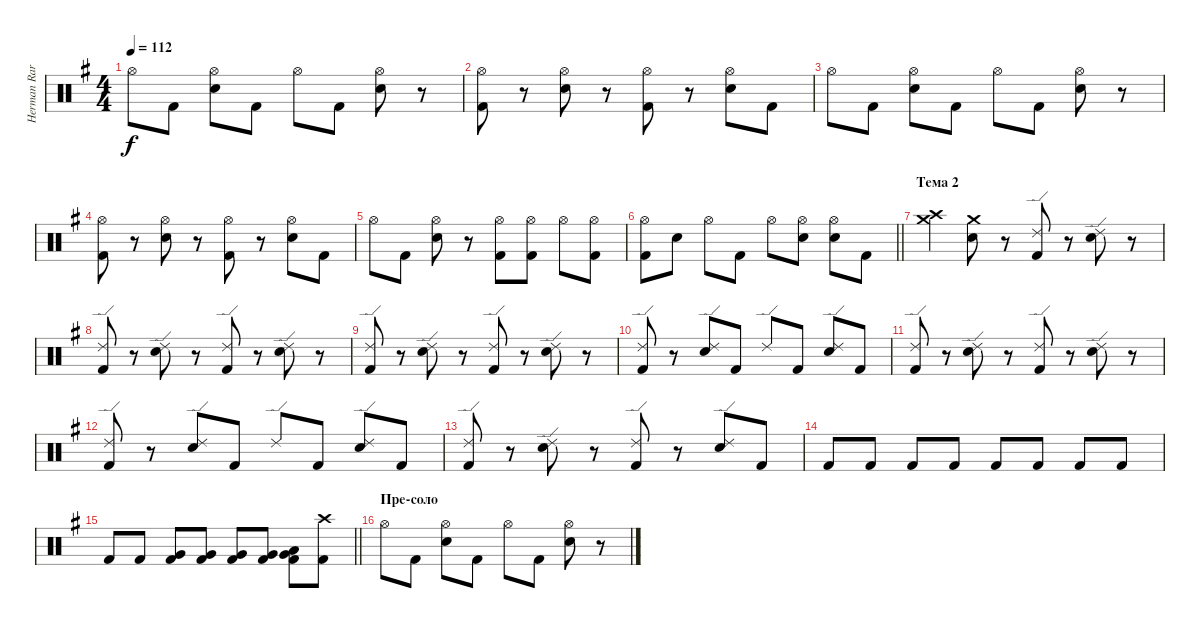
\track ("Herman Rarebell" "Herman Rar") {instrument percussion}
\staff {score}
\articulation defaults
\ts (4 4)
\tempo 112
\clef neutral
\ks eminor "Hi-Hat (open)".8{dy f} "Kick (hit) 2".8
("Hi-Hat (open)" "Electric Snare (hit)").8 "Kick (hit) 2".8 "Hi-Hat (open)".8 "Kick (hit) 2".8 ("Hi-Hat (open)" "Electric Snare (hit)").8 r.8 |
("Hi-Hat (open)" "Kick (hit) 2").8 r.8 ("Hi-Hat (open)" "Electric Snare (hit)").8 r.8 ("Hi-Hat (open)" "Kick (hit) 2").8 r.8 ("Hi-Hat (open)" "Electric Snare (hit)").8 "Kick (hit) 2".8 |
"Hi-Hat (open)".8 "Kick (hit) 2".8 ("Hi-Hat (open)" "Electric Snare (hit)").8 "Kick (hit) 2".8 "Hi-Hat (open)".8 "Kick (hit) 2".8 ("Hi-Hat (open)" "Electric Snare (hit)").8 r.8 |
("Hi-Hat (open)" "Kick (hit) 2").8 r.8 ("Hi-Hat (open)" "Electric Snare (hit)").8 r.8 ("Hi-Hat (open)" "Kick (hit) 2").8 r.8 ("Hi-Hat (open)" "Electric Snare (hit)").8 "Kick (hit) 2".8 |
"Hi-Hat (open)".8 "Kick (hit) 2".8 ("Hi-Hat (open)" "Electric Snare (hit)").8 r.8 ("Hi-Hat (open)" "Kick (hit) 2").8 ("Hi-Hat (open)" "Kick (hit) 2").8 "Hi-Hat (open)".8 ("Hi-Hat (open)" "Kick (hit) 2").8 |
\barLineRight lightlight
("Hi-Hat (open)" "Kick (hit) 2").8 "Electric Snare (hit)".8 "Hi-Hat (open)".8 "Kick (hit) 2".8 "Hi-Hat (open)".8 ("Hi-Hat (open)" "Electric Snare (hit)").8 ("Hi-Hat (open)" "Electric Snare (hit)").8 "Kick (hit) 2".8 |
\section ("" "Тема 2")
("Crash high (hit)" "Crash medium (hit)").4 ("Crash medium (hit)" "Electric Snare (hit)").8 r.8 ("Ride (edge) 2" "Kick (hit) 2").8 r.8 ("Ride (edge) 2" "Electric Snare (hit)").8 r.8 |
("Ride (edge) 2" "Kick (hit) 2").8 r.8 ("Ride (edge) 2" "Electric Snare (hit)").8 r.8 ("Ride (edge) 2" "Kick (hit) 2").8 r.8 ("Ride (edge) 2" "Electric Snare (hit)").8 r.8 |
("Ride (edge) 2" "Kick (hit) 2").8 r.8 ("Ride (edge) 2" "Electric Snare (hit)").8 r.8 ("Ride (edge) 2" "Kick (hit) 2").8 r.8 ("Ride (edge) 2" "Electric Snare (hit)").8 r.8 |
("Ride (edge) 2" "Kick (hit) 2").8 r.8 ("Ride (edge) 2" "Electric Snare (hit)").8 "Kick (hit) 2".8 "Ride (edge) 2".8 "Kick (hit) 2".8 ("Ride (edge) 2" "Electric Snare (hit)").8 "Kick (hit) 2".8 |
("Ride (edge) 2" "Kick (hit) 2").8 r.8 ("Ride (edge) 2" "Electric Snare (hit)").8 r.8 ("Ride (edge) 2" "Kick (hit) 2").8 r.8 ("Ride (edge) 2" "Electric Snare (hit)").8 r.8 |
("Ride (edge) 2" "Kick (hit) 2").8 r.8 ("Ride (edge) 2" "Electric Snare (hit)").8 "Kick (hit) 2".8 "Ride (edge) 2".8 "Kick (hit) 2".8 ("Ride (edge) 2" "Electric Snare (hit)").8 "Kick (hit) 2".8 |
("Ride (edge) 2" "Kick (hit) 2").8 r.8 ("Ride (edge) 2" "Electric Snare (hit)").8 r.8 ("Ride (edge) 2" "Kick (hit) 2").8 r.8 ("Ride (edge) 2" "Electric Snare (hit)").8 "Kick (hit) 2".8 |
"Kick (hit) 2".8 "Kick (hit) 2".8 "Kick (hit) 2".8 "Kick (hit) 2".8 "Kick (hit) 2".8 "Kick (hit) 2".8 "Kick (hit) 2".8 "Kick (hit) 2".8 |
\barLineRight lightlight "Kick (hit) 2".8 "Kick (hit) 2".8
("Very Low Tom (hit)" "Kick (hit) 2").8 ("Very Low Tom (hit)" "Kick (hit) 2").8 ("Very Low Tom (hit)" "Kick (hit) 2").8 ("Very Low Tom (hit)" "Kick (hit) 2").8 ("Very Low Tom (hit)" "Low Floor Tom (hit)" "Kick (hit) 2").8 ("Crash high (hit)" "Kick (hit) 2").8 |
\section ("" "Пре-соло")
"Hi-Hat (open)".8 "Kick (hit) 2".8 ("Hi-Hat (open)" "Electric Snare (hit)").8 "Kick (hit) 2".8 "Hi-Hat (open)".8 "Kick (hit) 2".8 ("Hi-Hat (open)" "Electric Snare (hit)").8 r.8
